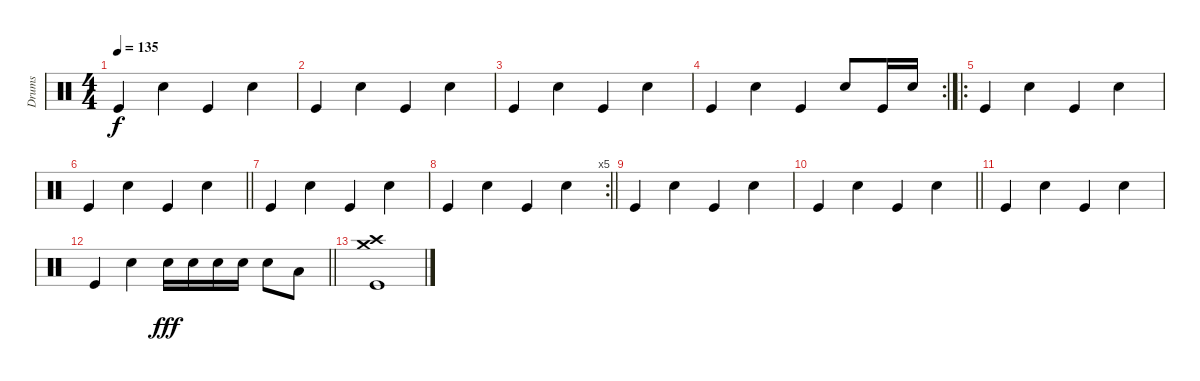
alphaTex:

\track ("Drums" "Drums") {instrument percussion}
\staff {score}
\articulation defaults
\ts (4 4)
\tempo 135
\clef neutral
\ks c "Kick (hit)".4{dy f} "Electric Snare (hit)".4 "Kick (hit)".4 "Electric Snare (hit)".4
|
"Kick (hit)".4 "Electric Snare (hit)".4 "Kick (hit)".4 "Electric Snare (hit)".4 |
"Kick (hit)".4 "Electric Snare (hit)".4 "Kick (hit)".4 "Electric Snare (hit)".4 |
\rc 2 "Kick (hit)".4 "Electric Snare (hit)".4 "Kick (hit)".4 "Electric Snare (hit)".8 "Kick (hit)".16 "Electric Snare (hit)".16
|
\ro "Kick (hit)".4 "Electric Snare (hit)".4 "Kick (hit)".4 "Electric Snare (hit)".4
|
\barLineRight lightlight "Kick (hit)".4 "Electric Snare (hit)".4 "Kick (hit)".4 "Electric Snare (hit)".4
|
"Kick (hit)".4 "Electric Snare (hit)".4 "Kick (hit)".4 "Electric Snare (hit)".4 |
\rc 5
\barLineRight lightlight "Kick (hit)".4 "Electric Snare (hit)".4 "Kick (hit)".4 "Electric Snare (hit)".4
|
"Kick (hit)".4 "Electric Snare (hit)".4 "Kick (hit)".4 "Electric Snare (hit)".4 |
\barLineRight lightlight "Kick (hit)".4 "Electric Snare (hit)".4 "Kick (hit)".4 "Electric Snare (hit)".4
|
"Kick (hit)".4 "Electric Snare (hit)".4 "Kick (hit)".4 "Electric Snare (hit)".4 |
\barLineRight lightlight "Kick (hit)".4 "Electric Snare (hit)".4 "Electric Snare (hit)".16{dy fff} "Electric Snare (hit)".16 "Electric Snare (hit)".16 "Electric Snare (hit)".16 "Electric Snare (hit)".8 "Low Tom (hit)".8
|
("Crash medium (hit)" "Crash high (hit)" "Kick (hit)").1
